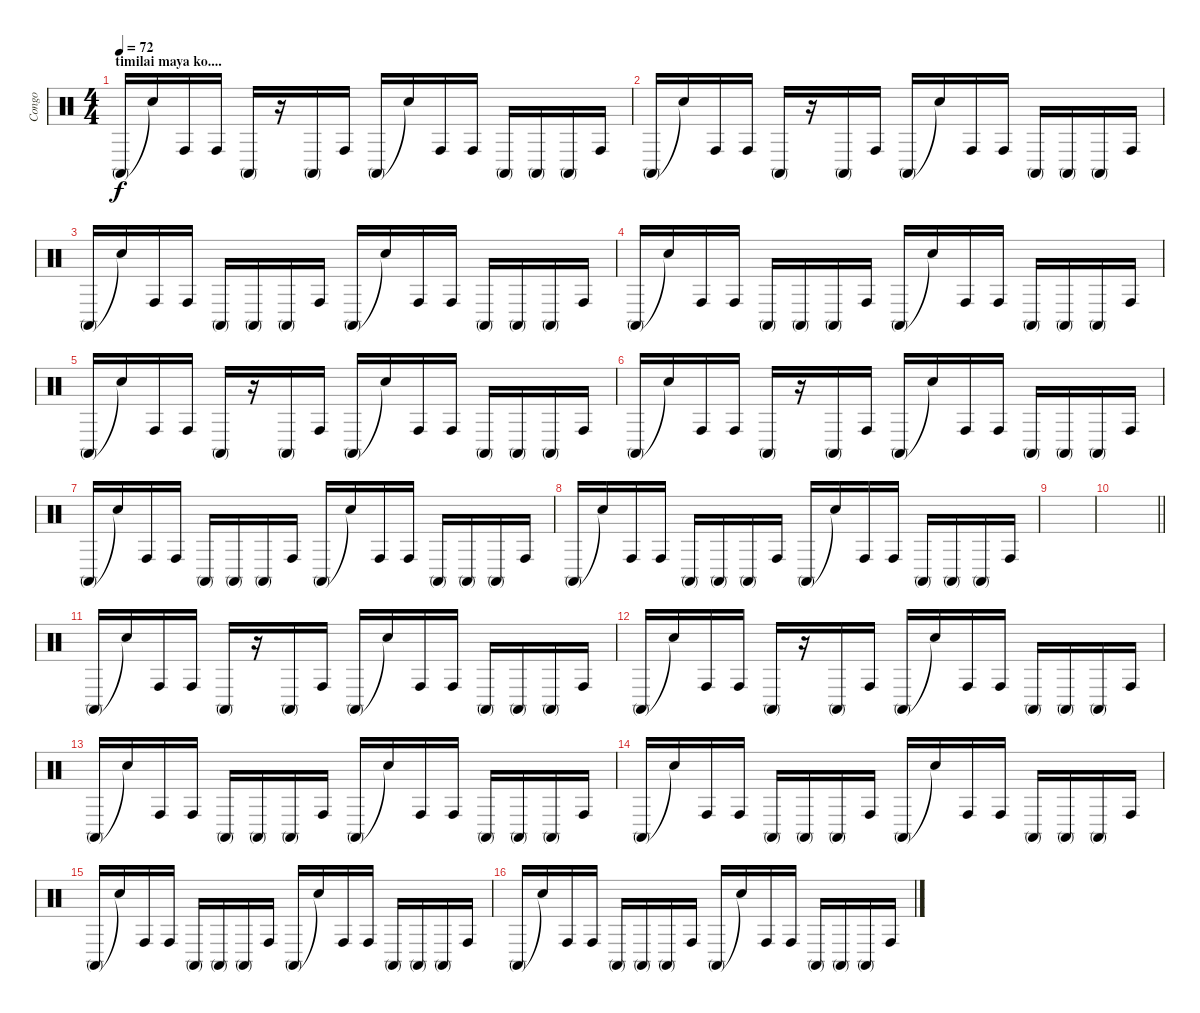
\track ("Congo" "Congo") {instrument percussion}
\staff {score}
\articulation defaults
\ts (4 4)
\section ("" "timilai maya ko....")
\tempo 72
\clef neutral
\ks c "Conga high (mute)".16{dy f} "Snare (hit)"{t}.16 "Conga high (hit)".16 "Conga high (hit)".16 "Conga high (mute)".16
r.16 "Conga high (mute)".16 "Conga high (hit)".16 "Conga high (mute)".16 "Snare (hit)"{t}.16 "Conga high (hit)".16 "Conga high (hit)".16 "Conga high (mute)".16 "Conga high (mute)".16 "Conga high (mute)".16 "Conga high (hit)".16 |
"Conga high (mute)".16 "Snare (hit)"{t}.16 "Conga high (hit)".16 "Conga high (hit)".16 "Conga high (mute)".16 r.16 "Conga high (mute)".16 "Conga high (hit)".16 "Conga high (mute)".16 "Snare (hit)"{t}.16 "Conga high (hit)".16 "Conga high (hit)".16 "Conga high (mute)".16 "Conga high (mute)".16 "Conga high (mute)".16 "Conga high (hit)".16 |
"Conga high (mute)".16 "Snare (hit)"{t}.16 "Conga high (hit)".16 "Conga high (hit)".16 "Conga high (mute)".16 "Conga high (mute)".16 "Conga high (mute)".16 "Conga high (hit)".16 "Conga high (mute)".16 "Snare (hit)"{t}.16 "Conga high (hit)".16 "Conga high (hit)".16 "Conga high (mute)".16 "Conga high (mute)".16 "Conga high (mute)".16 "Conga high (hit)".16 |
"Conga high (mute)".16 "Snare (hit)"{t}.16 "Conga high (hit)".16 "Conga high (hit)".16 "Conga high (mute)".16 "Conga high (mute)".16 "Conga high (mute)".16 "Conga high (hit)".16 "Conga high (mute)".16 "Snare (hit)"{t}.16 "Conga high (hit)".16 "Conga high (hit)".16 "Conga high (mute)".16 "Conga high (mute)".16 "Conga high (mute)".16 "Conga high (hit)".16 |
"Conga high (mute)".16 "Snare (hit)"{t}.16 "Conga high (hit)".16 "Conga high (hit)".16 "Conga high (mute)".16 r.16 "Conga high (mute)".16 "Conga high (hit)".16 "Conga high (mute)".16 "Snare (hit)"{t}.16 "Conga high (hit)".16 "Conga high (hit)".16 "Conga high (mute)".16 "Conga high (mute)".16 "Conga high (mute)".16 "Conga high (hit)".16 |
"Conga high (mute)".16 "Snare (hit)"{t}.16 "Conga high (hit)".16 "Conga high (hit)".16 "Conga high (mute)".16 r.16 "Conga high (mute)".16 "Conga high (hit)".16 "Conga high (mute)".16 "Snare (hit)"{t}.16 "Conga high (hit)".16 "Conga high (hit)".16 "Conga high (mute)".16 "Conga high (mute)".16 "Conga high (mute)".16 "Conga high (hit)".16 |
"Conga high (mute)".16 "Snare (hit)"{t}.16 "Conga high (hit)".16 "Conga high (hit)".16 "Conga high (mute)".16 "Conga high (mute)".16 "Conga high (mute)".16 "Conga high (hit)".16 "Conga high (mute)".16 "Snare (hit)"{t}.16 "Conga high (hit)".16 "Conga high (hit)".16 "Conga high (mute)".16 "Conga high (mute)".16 "Conga high (mute)".16 "Conga high (hit)".16 |
"Conga high (mute)".16 "Snare (hit)"{t}.16 "Conga high (hit)".16 "Conga high (hit)".16 "Conga high (mute)".16 "Conga high (mute)".16 "Conga high (mute)".16 "Conga high (hit)".16 "Conga high (mute)".16 "Snare (hit)"{t}.16 "Conga high (hit)".16 "Conga high (hit)".16 "Conga high (mute)".16 "Conga high (mute)".16 "Conga high (mute)".16 "Conga high (hit)".16 |
|
\barLineRight lightlight
|
"Conga high (mute)".16 "Snare (hit)"{t}.16 "Conga high (hit)".16 "Conga high (hit)".16 "Conga high (mute)".16 r.16 "Conga high (mute)".16 "Conga high (hit)".16 "Conga high (mute)".16 "Snare (hit)"{t}.16 "Conga high (hit)".16 "Conga high (hit)".16 "Conga high (mute)".16 "Conga high (mute)".16 "Conga high (mute)".16 "Conga high (hit)".16 |
"Conga high (mute)".16 "Snare (hit)"{t}.16 "Conga high (hit)".16 "Conga high (hit)".16 "Conga high (mute)".16 r.16 "Conga high (mute)".16 "Conga high (hit)".16 "Conga high (mute)".16 "Snare (hit)"{t}.16 "Conga high (hit)".16 "Conga high (hit)".16 "Conga high (mute)".16 "Conga high (mute)".16 "Conga high (mute)".16 "Conga high (hit)".16 |
"Conga high (mute)".16 "Snare (hit)"{t}.16 "Conga high (hit)".16 "Conga high (hit)".16 "Conga high (mute)".16 "Conga high (mute)".16 "Conga high (mute)".16 "Conga high (hit)".16 "Conga high (mute)".16 "Snare (hit)"{t}.16 "Conga high (hit)".16 "Conga high (hit)".16 "Conga high (mute)".16 "Conga high (mute)".16 "Conga high (mute)".16 "Conga high (hit)".16 |
"Conga high (mute)".16 "Snare (hit)"{t}.16 "Conga high (hit)".16 "Conga high (hit)".16 "Conga high (mute)".16 "Conga high (mute)".16 "Conga high (mute)".16 "Conga high (hit)".16 "Conga high (mute)".16 "Snare (hit)"{t}.16 "Conga high (hit)".16 "Conga high (hit)".16 "Conga high (mute)".16 "Conga high (mute)".16 "Conga high (mute)".16 "Conga high (hit)".16 |
"Conga high (mute)".16 "Snare (hit)"{t}.16 "Conga high (hit)".16 "Conga high (hit)".16 "Conga high (mute)".16 "Conga high (mute)".16 "Conga high (mute)".16 "Conga high (hit)".16 "Conga high (mute)".16 "Snare (hit)"{t}.16 "Conga high (hit)".16 "Conga high (hit)".16 "Conga high (mute)".16 "Conga high (mute)".16 "Conga high (mute)".16 "Conga high (hit)".16 |
"Conga high (mute)".16 "Snare (hit)"{t}.16 "Conga high (hit)".16 "Conga high (hit)".16 "Conga high (mute)".16 "Conga high (mute)".16 "Conga high (mute)".16 "Conga high (hit)".16 "Conga high (mute)".16 "Snare (hit)"{t}.16 "Conga high (hit)".16 "Conga high (hit)".16 "Conga high (mute)".16 "Conga high (mute)".16 "Conga high (mute)".16 "Conga high (hit)".16
